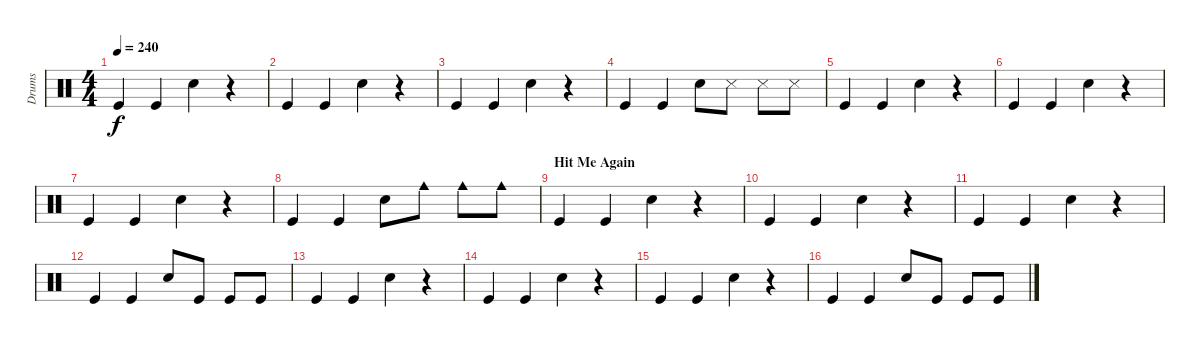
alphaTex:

\track ("Drums" "Drums") {instrument percussion}
\staff {score}
\articulation defaults
\ts (4 4)
\tempo 240
\clef neutral
\ks c "Kick (hit)".4{dy f} "Kick (hit)".4 "Snare (hit) 2".4
r.4 |
"Kick (hit)".4 "Kick (hit)".4 "Snare (hit) 2".4 r.4 |
"Kick (hit)".4 "Kick (hit)".4 "Snare (hit) 2".4 r.4 |
"Kick (hit)".4 "Kick (hit)".4 "Snare (hit) 2".8 "Snare (side stick) 3".8 "Snare (side stick) 3".8 "Snare (side stick) 3".8 |
"Kick (hit)".4 "Kick (hit)".4 "Snare (hit) 2".4 r.4 |
"Kick (hit)".4 "Kick (hit)".4 "Snare (hit) 2".4 r.4 |
"Kick (hit)".4 "Kick (hit)".4 "Snare (hit) 2".4 r.4 |
"Kick (hit)".4 "Kick (hit)".4 "Snare (hit) 2".8 "Cowbell medium (hit)".8 "Cowbell medium (hit)".8 "Cowbell medium (hit)".8 |
\section ("" "Hit Me Again")
"Kick (hit)".4 "Kick (hit)".4 "Snare (hit) 2".4 r.4 |
"Kick (hit)".4 "Kick (hit)".4 "Snare (hit) 2".4 r.4 |
"Kick (hit)".4 "Kick (hit)".4 "Snare (hit) 2".4 r.4 |
"Kick (hit)".4 "Kick (hit)".4 "Snare (hit) 2".8 "Kick (hit)".8 "Kick (hit)".8 "Kick (hit)".8 |
"Kick (hit)".4 "Kick (hit)".4 "Snare (hit) 2".4 r.4 |
"Kick (hit)".4 "Kick (hit)".4 "Snare (hit) 2".4 r.4 |
"Kick (hit)".4 "Kick (hit)".4 "Snare (hit) 2".4 r.4 |
"Kick (hit)".4 "Kick (hit)".4 "Snare (hit) 2".8 "Kick (hit)".8 "Kick (hit)".8 "Kick (hit)".8
